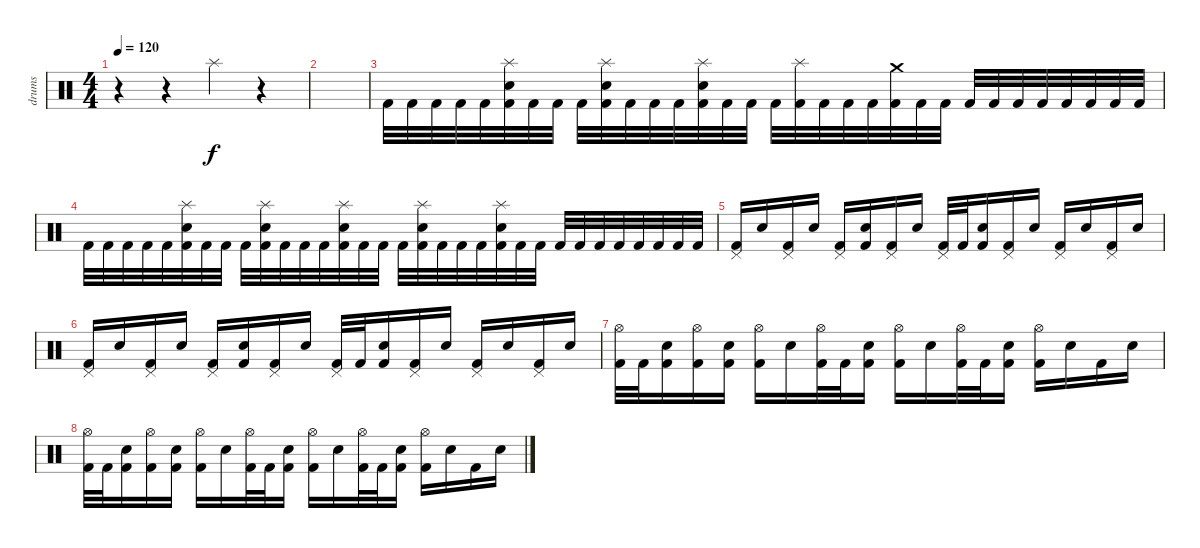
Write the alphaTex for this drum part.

\track ("drums" "drums") {instrument percussion}
\staff {score}
\articulation defaults
\ts (4 4)
\tempo 120
\clef neutral
\ks c
r.4{dy f} r.4 "Splash (hit)".4 r.4 |
|
"Kick (hit) 2".32 "Kick (hit) 2".32 "Kick (hit) 2".32 "Kick (hit) 2".32 "Kick (hit) 2".32 ("Splash (hit)" "Snare (hit) 2" "Kick (hit) 2").32 "Kick (hit) 2".32 "Kick (hit) 2".32 "Kick (hit) 2".32 ("Splash (hit)" "Electric Snare (hit)" "Kick (hit) 2").32 "Kick (hit) 2".32 "Kick (hit) 2".32 "Kick (hit) 2".32 ("Splash (hit)" "Electric Snare (hit)" "Kick (hit) 2").32 "Kick (hit) 2".32 "Kick (hit) 2".32 "Kick (hit) 2".32 ("Splash (hit)" "Kick (hit) 2").32 "Kick (hit) 2".32 "Kick (hit) 2".32 "Kick (hit) 2".32 ("Crash medium (hit)" "Kick (hit) 2").32 "Kick (hit) 2".32 "Kick (hit) 2".32 "Kick (hit) 2".32 "Kick (hit) 2".32 "Kick (hit) 2".32 "Kick (hit) 2".32 "Kick (hit) 2".32 "Kick (hit) 2".32 "Kick (hit) 2".32 "Kick (hit) 2".32 |
"Kick (hit) 2".32 "Kick (hit) 2".32 "Kick (hit) 2".32 "Kick (hit) 2".32 "Kick (hit) 2".32 ("Splash (hit)" "Snare (hit) 2" "Kick (hit) 2").32 "Kick (hit) 2".32 "Kick (hit) 2".32 "Kick (hit) 2".32 ("Splash (hit)" "Electric Snare (hit)" "Kick (hit) 2").32 "Kick (hit) 2".32 "Kick (hit) 2".32 "Kick (hit) 2".32 ("Splash (hit)" "Electric Snare (hit)" "Kick (hit) 2").32 "Kick (hit) 2".32 "Kick (hit) 2".32 "Kick (hit) 2".32 ("Splash (hit)" "Electric Snare (hit)" "Kick (hit) 2").32 "Kick (hit) 2".32 "Kick (hit) 2".32 "Kick (hit) 2".32 ("Splash (hit)" "Electric Snare (hit)" "Kick (hit) 2").32 "Kick (hit) 2".32 "Kick (hit) 2".32 "Kick (hit) 2".32 "Kick (hit) 2".32 "Kick (hit) 2".32 "Kick (hit) 2".32 "Kick (hit) 2".32 "Kick (hit) 2".32 "Kick (hit) 2".32 "Kick (hit) 2".32 |
("Pedal Hi-Hat (hit)" "Kick (hit) 2").16 "Electric Snare (hit)".16 ("Pedal Hi-Hat (hit)" "Kick (hit) 2").16 "Electric Snare (hit)".16 ("Pedal Hi-Hat (hit)" "Kick (hit) 2").16 ("Electric Snare (hit)" "Kick (hit) 2").16 ("Pedal Hi-Hat (hit)" "Kick (hit) 2").16 "Electric Snare (hit)".16 ("Pedal Hi-Hat (hit)" "Kick (hit) 2").32 "Kick (hit) 2".32 ("Electric Snare (hit)" "Kick (hit) 2").16 ("Pedal Hi-Hat (hit)" "Kick (hit) 2").16 "Electric Snare (hit)".16 ("Pedal Hi-Hat (hit)" "Kick (hit) 2").16 "Electric Snare (hit)".16 ("Pedal Hi-Hat (hit)" "Kick (hit) 2").16 "Electric Snare (hit)".16 |
("Pedal Hi-Hat (hit)" "Kick (hit) 2").16 "Electric Snare (hit)".16 ("Pedal Hi-Hat (hit)" "Kick (hit) 2").16 "Electric Snare (hit)".16 ("Pedal Hi-Hat (hit)" "Kick (hit) 2").16 ("Electric Snare (hit)" "Kick (hit) 2").16 ("Pedal Hi-Hat (hit)" "Kick (hit) 2").16 "Electric Snare (hit)".16 ("Pedal Hi-Hat (hit)" "Kick (hit) 2").32 "Kick (hit) 2".32 ("Electric Snare (hit)" "Kick (hit) 2").16 ("Pedal Hi-Hat (hit)" "Kick (hit) 2").16 "Electric Snare (hit)".16 ("Pedal Hi-Hat (hit)" "Kick (hit) 2").16 "Electric Snare (hit)".16 ("Pedal Hi-Hat (hit)" "Kick (hit) 2").16 "Electric Snare (hit)".16 |
("Hi-Hat (open)" "Kick (hit) 2").32 "Kick (hit) 2".32 ("Electric Snare (hit)" "Kick (hit) 2").16 ("Hi-Hat (open)" "Kick (hit) 2").16 ("Electric Snare (hit)" "Kick (hit) 2").16 ("Hi-Hat (open)" "Kick (hit) 2").16 "Electric Snare (hit)".16 ("Hi-Hat (open)" "Kick (hit) 2").32 "Kick (hit) 2".32 ("Electric Snare (hit)" "Kick (hit) 2").16 ("Hi-Hat (open)" "Kick (hit) 2").16 "Electric Snare (hit)".16 ("Hi-Hat (open)" "Kick (hit) 2").32 "Kick (hit) 2".32 ("Electric Snare (hit)" "Kick (hit) 2").16 ("Hi-Hat (open)" "Kick (hit) 2").16 "Electric Snare (hit)".16 "Kick (hit) 2".16 "Electric Snare (hit)".16 |
("Hi-Hat (open)" "Kick (hit) 2").32 "Kick (hit) 2".32 ("Electric Snare (hit)" "Kick (hit) 2").16 ("Hi-Hat (open)" "Kick (hit) 2").16 ("Electric Snare (hit)" "Kick (hit) 2").16 ("Hi-Hat (open)" "Kick (hit) 2").16 "Electric Snare (hit)".16 ("Hi-Hat (open)" "Kick (hit) 2").32 "Kick (hit) 2".32 ("Electric Snare (hit)" "Kick (hit) 2").16 ("Hi-Hat (open)" "Kick (hit) 2").16 "Electric Snare (hit)".16 ("Hi-Hat (open)" "Kick (hit) 2").32 "Kick (hit) 2".32 ("Electric Snare (hit)" "Kick (hit) 2").16 ("Hi-Hat (open)" "Kick (hit) 2").16 "Electric Snare (hit)".16 "Kick (hit) 2".16 "Electric Snare (hit)".16
